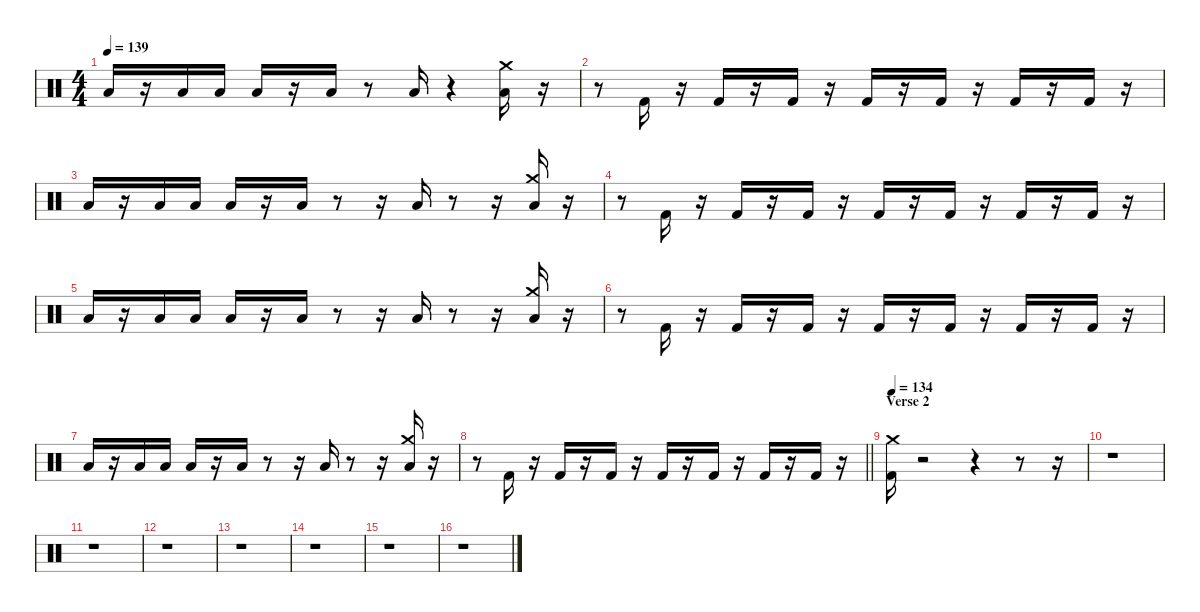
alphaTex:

\defaultSystemsLayout 4
\hideDynamics
\bracketExtendMode nobrackets
\singleTrackTrackNamePolicy hidden
\multiTrackTrackNamePolicy hidden
\firstSystemTrackNameMode fullname
\firstSystemTrackNameOrientation horizontal
\otherSystemsTrackNameOrientation horizontal
\track ("John Bonham" "drm.") {instrument percussion}
\staff {score}
\articulation defaults
\ts (4 4)
\tempo 139
\clef neutral
\ks aminor "Low Floor Tom (hit)".16{dy f beam Up}
r.16{beam Up} "Low Floor Tom (hit)".16{beam Up} "Low Floor Tom (hit)".16{beam Up} "Low Floor Tom (hit)".16{beam Up} r.16{beam Up} "Low Floor Tom (hit)".16{beam Up} r.8{beam Up} "Low Floor Tom (hit)".16{beam Up} r.4{beam Up} ("Low Floor Tom (hit)" "Crash medium (hit)").16{beam Down} r.16{beam Down} |
r.8{beam Down} "Kick (hit) 2".16{beam Up} r.16{beam Up} "Kick (hit) 2".16{beam Up} r.16{beam Up} "Kick (hit) 2".16{beam Up} r.16{beam Up} "Kick (hit) 2".16{beam Up} r.16{beam Up} "Kick (hit) 2".16{beam Up} r.16{beam Up} "Kick (hit) 2".16{beam Up} r.16{beam Up} "Kick (hit) 2".16{beam Up} r.16{beam Up} |
"Low Floor Tom (hit)".16{beam Up} r.16{beam Up} "Low Floor Tom (hit)".16{beam Up} "Low Floor Tom (hit)".16{beam Up} "Low Floor Tom (hit)".16{beam Up} r.16{beam Up} "Low Floor Tom (hit)".16{beam Up} r.8{beam Up} r.16{beam Up} "Low Floor Tom (hit)".16{beam Up} r.8{beam Up} r.16{beam Up} ("Low Floor Tom (hit)" "Crash medium (hit)").16{beam Down} r.16{beam Down} |
r.8{beam Down} "Kick (hit) 2".16{beam Up} r.16{beam Up} "Kick (hit) 2".16{beam Up} r.16{beam Up} "Kick (hit) 2".16{beam Up} r.16{beam Up} "Kick (hit) 2".16{beam Up} r.16{beam Up} "Kick (hit) 2".16{beam Up} r.16{beam Up} "Kick (hit) 2".16{beam Up} r.16{beam Up} "Kick (hit) 2".16{beam Up} r.16{beam Up} |
"Low Floor Tom (hit)".16{beam Up} r.16{beam Up} "Low Floor Tom (hit)".16{beam Up} "Low Floor Tom (hit)".16{beam Up} "Low Floor Tom (hit)".16{beam Up} r.16{beam Up} "Low Floor Tom (hit)".16{beam Up} r.8{beam Up} r.16{beam Up} "Low Floor Tom (hit)".16{beam Up} r.8{beam Up} r.16{beam Up} ("Low Floor Tom (hit)" "Crash medium (hit)").16{beam Down} r.16{beam Down} |
r.8{beam Down} "Kick (hit) 2".16{beam Up} r.16{beam Up} "Kick (hit) 2".16{beam Up} r.16{beam Up} "Kick (hit) 2".16{beam Up} r.16{beam Up} "Kick (hit) 2".16{beam Up} r.16{beam Up} "Kick (hit) 2".16{beam Up} r.16{beam Up} "Kick (hit) 2".16{beam Up} r.16{beam Up} "Kick (hit) 2".16{beam Up} r.16{beam Up} |
"Low Floor Tom (hit)".16{beam Up} r.16{beam Up} "Low Floor Tom (hit)".16{beam Up} "Low Floor Tom (hit)".16{beam Up} "Low Floor Tom (hit)".16{beam Up} r.16{beam Up} "Low Floor Tom (hit)".16{beam Up} r.8{beam Up} r.16{beam Up} "Low Floor Tom (hit)".16{beam Up} r.8{beam Up} r.16{beam Up} ("Low Floor Tom (hit)" "Crash medium (hit)").16{beam Down} r.16{beam Down} |
\barLineRight lightlight
r.8{beam Down} "Kick (hit) 2".16{beam Up} r.16{beam Up} "Kick (hit) 2".16{beam Up} r.16{beam Up} "Kick (hit) 2".16{beam Up} r.16{beam Up} "Kick (hit) 2".16{beam Up} r.16{beam Up} "Kick (hit) 2".16{beam Up} r.16{beam Up} "Kick (hit) 2".16{beam Up} r.16{beam Up} "Kick (hit) 2".16{beam Up} r.16{beam Up} |
\section ("" "Verse 2")
\tempo 134
("Kick (hit) 2" "Crash medium (hit)").16{beam Down} r.2{beam Down} r.4{beam Down} r.8{beam Down} r.16{beam Down} |
r.1{beam Down} |
r.1{beam Down} |
r.1{beam Down} |
r.1{beam Down} |
r.1{beam Down} |
r.1{beam Down} |
r.1{beam Down}
